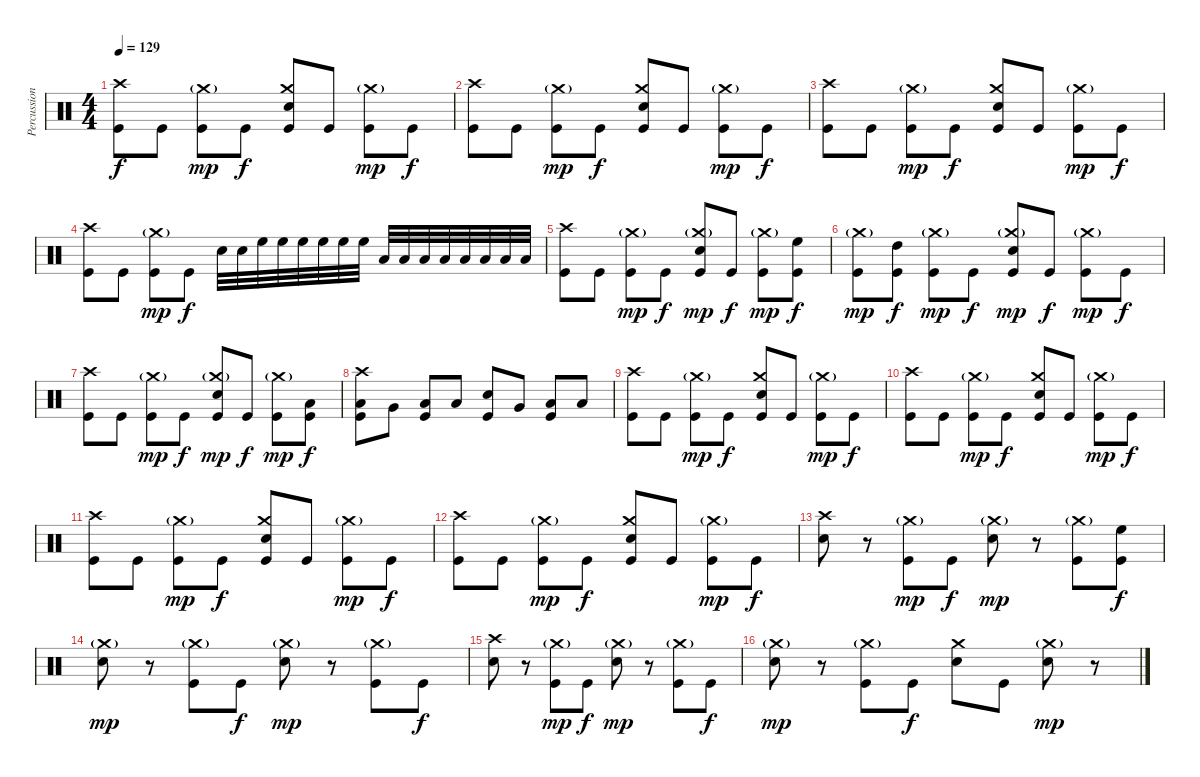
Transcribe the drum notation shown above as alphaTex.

\track ("Percussion" "Percussion") {instrument percussion}
\staff {score}
\articulation defaults
\ts (4 4)
\tempo 129
\clef neutral
\ks c
("Crash high (hit)" "Kick (hit)").8{dy f} "Kick (hit)".8 ("Crash medium (hit)"{g} "Kick (hit)").8{dy mp} "Kick (hit)".8{dy f} ("Crash medium (hit)" "Electric Snare (hit)" "Kick (hit)").8 "Kick (hit)".8 ("Crash medium (hit)"{g} "Kick (hit)").8{dy mp} "Kick (hit)".8{dy f} |
("Crash high (hit)" "Kick (hit)").8 "Kick (hit)".8 ("Crash medium (hit)"{g} "Kick (hit)").8{dy mp} "Kick (hit)".8{dy f} ("Crash medium (hit)" "Electric Snare (hit)" "Kick (hit)").8 "Kick (hit)".8 ("Crash medium (hit)"{g} "Kick (hit)").8{dy mp} "Kick (hit)".8{dy f} |
("Crash high (hit)" "Kick (hit)").8 "Kick (hit)".8 ("Crash medium (hit)"{g} "Kick (hit)").8{dy mp} "Kick (hit)".8{dy f} ("Crash medium (hit)" "Electric Snare (hit)" "Kick (hit)").8 "Kick (hit)".8 ("Crash medium (hit)"{g} "Kick (hit)").8{dy mp} "Kick (hit)".8{dy f} |
("Crash high (hit)" "Kick (hit)").8 "Kick (hit)".8 ("Crash medium (hit)"{g} "Kick (hit)").8{dy mp} "Kick (hit)".8{dy f} "Electric Snare (hit)".32 "Electric Snare (hit)".32 "High Floor Tom (hit)".32 "High Floor Tom (hit)".32 "High Floor Tom (hit)".32 "High Floor Tom (hit)".32 "High Floor Tom (hit)".32 "High Floor Tom (hit)".32 "Low Tom (hit)".32 "Low Tom (hit)".32 "Low Tom (hit)".32 "Low Tom (hit)".32 "Low Tom (hit)".32 "Low Tom (hit)".32 "Low Tom (hit)".32 "Low Tom (hit)".32 |
("Crash high (hit)" "Kick (hit)").8 "Kick (hit)".8 ("Crash medium (hit)"{g} "Kick (hit)").8{dy mp} "Kick (hit)".8{dy f} ("Crash medium (hit)"{g} "Electric Snare (hit)" "Kick (hit)").8{dy mp} "Kick (hit)".8{dy f} ("Crash medium (hit)"{g} "Kick (hit)").8{dy mp} ("High Floor Tom (hit)" "Kick (hit)").8{dy f} |
("Crash medium (hit)"{g} "Kick (hit)").8{dy mp} ("High Tom (hit)" "Kick (hit)").8{dy f} ("Crash medium (hit)"{g} "Kick (hit)").8{dy mp} "Kick (hit)".8{dy f} ("Crash medium (hit)"{g} "Electric Snare (hit)" "Kick (hit)").8{dy mp} "Kick (hit)".8{dy f} ("Crash medium (hit)"{g} "Kick (hit)").8{dy mp} "Kick (hit)".8{dy f} |
("Crash high (hit)" "Kick (hit)").8 "Kick (hit)".8 ("Crash medium (hit)"{g} "Kick (hit)").8{dy mp} "Kick (hit)".8{dy f} ("Crash medium (hit)"{g} "Electric Snare (hit)" "Kick (hit)").8{dy mp} "Kick (hit)".8{dy f} ("Crash medium (hit)"{g} "Kick (hit)").8{dy mp} ("Low Tom (hit)" "Kick (hit)").8{dy f} |
("Crash high (hit)" "Low Tom (hit)" "Kick (hit)").8 "Very Low Tom (hit)".8 ("Low Floor Tom (hit)" "Kick (hit)").8 "Low Floor Tom (hit)".8 ("Electric Snare (hit)" "Kick (hit)").8 "Very Low Tom (hit)".8 ("Low Floor Tom (hit)" "Kick (hit)").8 "Low Floor Tom (hit)".8 |
("Crash high (hit)" "Kick (hit)").8 "Kick (hit)".8 ("Crash medium (hit)"{g} "Kick (hit)").8{dy mp} "Kick (hit)".8{dy f} ("Crash medium (hit)" "Electric Snare (hit)" "Kick (hit)").8 "Kick (hit)".8 ("Crash medium (hit)"{g} "Kick (hit)").8{dy mp} "Kick (hit)".8{dy f} |
("Crash high (hit)" "Kick (hit)").8 "Kick (hit)".8 ("Crash medium (hit)"{g} "Kick (hit)").8{dy mp} "Kick (hit)".8{dy f} ("Crash medium (hit)" "Electric Snare (hit)" "Kick (hit)").8 "Kick (hit)".8 ("Crash medium (hit)"{g} "Kick (hit)").8{dy mp} "Kick (hit)".8{dy f} |
("Crash high (hit)" "Kick (hit)").8 "Kick (hit)".8 ("Crash medium (hit)"{g} "Kick (hit)").8{dy mp} "Kick (hit)".8{dy f} ("Crash medium (hit)" "Electric Snare (hit)" "Kick (hit)").8 "Kick (hit)".8 ("Crash medium (hit)"{g} "Kick (hit)").8{dy mp} "Kick (hit)".8{dy f} |
("Crash high (hit)" "Kick (hit)").8 "Kick (hit)".8 ("Crash medium (hit)"{g} "Kick (hit)").8{dy mp} "Kick (hit)".8{dy f} ("Crash medium (hit)" "Electric Snare (hit)" "Kick (hit)").8 "Kick (hit)".8 ("Crash medium (hit)"{g} "Kick (hit)").8{dy mp} "Kick (hit)".8{dy f} |
("Crash high (hit)" "Electric Snare (hit)").8 r.8 ("Crash medium (hit)"{g} "Kick (hit)").8{dy mp} "Kick (hit)".8{dy f} ("Crash medium (hit)"{g} "Electric Snare (hit)").8{dy mp} r.8 ("Crash medium (hit)"{g} "Kick (hit)").8 ("High Floor Tom (hit)" "Kick (hit)").8{dy f} |
("Crash medium (hit)"{g} "Electric Snare (hit)").8{dy mp} r.8 ("Crash medium (hit)"{g} "Kick (hit)").8 "Kick (hit)".8{dy f} ("Crash medium (hit)"{g} "Electric Snare (hit)").8{dy mp} r.8 ("Crash medium (hit)"{g} "Kick (hit)").8 "Kick (hit)".8{dy f} |
("Crash high (hit)" "Electric Snare (hit)").8 r.8 ("Crash medium (hit)"{g} "Kick (hit)").8{dy mp} "Kick (hit)".8{dy f} ("Crash medium (hit)"{g} "Electric Snare (hit)").8{dy mp} r.8 ("Crash medium (hit)"{g} "Kick (hit)").8 "Kick (hit)".8{dy f} |
("Crash medium (hit)"{g} "Electric Snare (hit)").8{dy mp} r.8 ("Crash medium (hit)"{g} "Kick (hit)").8 "Kick (hit)".8{dy f} ("Crash medium (hit)" "Electric Snare (hit)").8 "Kick (hit)".8 ("Crash medium (hit)"{g} "Electric Snare (hit)").8{dy mp} r.8
